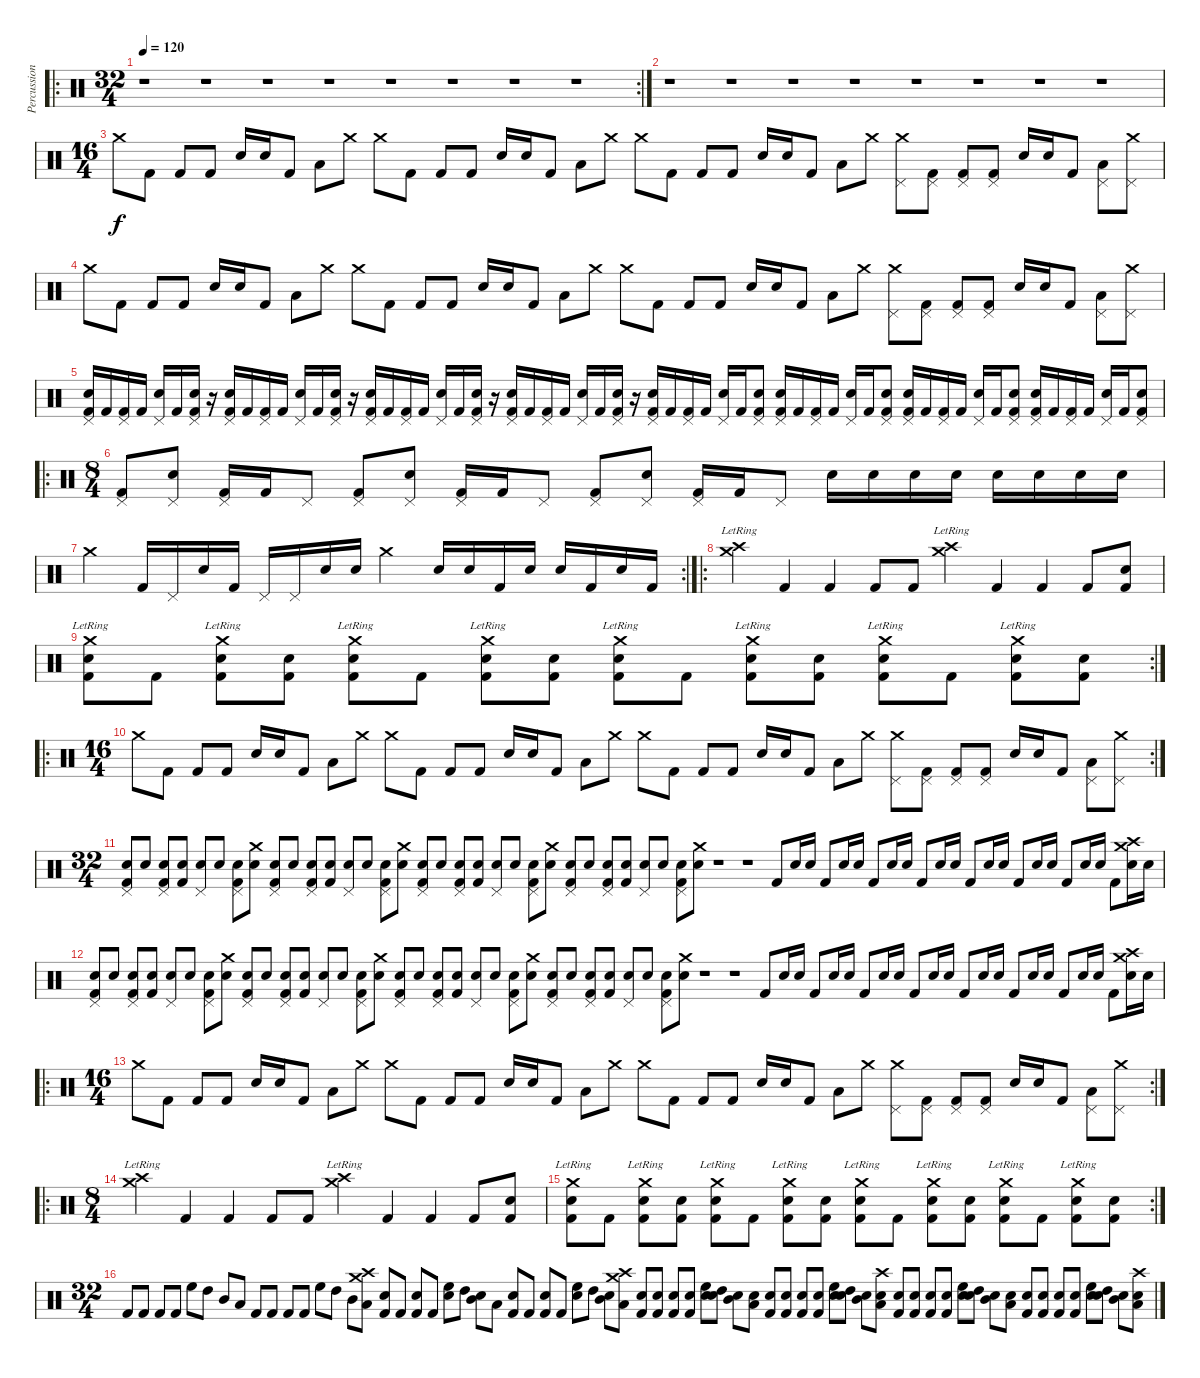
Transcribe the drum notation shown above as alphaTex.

\track ("Percussion" "Percussion") {instrument percussion}
\staff {score}
\articulation defaults
\ro
\rc 2
\ts (32 4)
\tempo 120
\clef neutral
\ks c
r.1{dy f} r.1 r.1 r.1 r.1 r.1 r.1 r.1 |
r.1 r.1 r.1 r.1 r.1 r.1 r.1 r.1 |
\ts (16 4)
"Crash medium (hit)".8 "Kick (hit) 2".8 "Kick (hit) 2".8 "Kick (hit) 2".8 "Snare (hit) 2".16 "Snare (hit) 2".16 "Kick (hit) 2".8 "Low Tom (hit)".8 "Crash medium (hit)".8 "Crash medium (hit)".8 "Kick (hit) 2".8 "Kick (hit) 2".8 "Kick (hit) 2".8 "Snare (hit) 2".16 "Snare (hit) 2".16 "Kick (hit) 2".8 "Low Tom (hit)".8 "Crash medium (hit)".8 "Crash medium (hit)".8 "Kick (hit) 2".8 "Kick (hit) 2".8 "Kick (hit) 2".8 "Snare (hit) 2".16 "Snare (hit) 2".16 "Kick (hit) 2".8 "Low Tom (hit)".8 "Crash medium (hit)".8 ("Crash medium (hit)" "Pedal Hi-Hat (hit)").8 ("Kick (hit) 2" "Pedal Hi-Hat (hit)").8 ("Kick (hit) 2" "Pedal Hi-Hat (hit)").8 ("Kick (hit) 2" "Pedal Hi-Hat (hit)").8 "Snare (hit) 2".16 "Snare (hit) 2".16 "Kick (hit) 2".8 ("Low Tom (hit)" "Pedal Hi-Hat (hit)").8 ("Crash medium (hit)" "Pedal Hi-Hat (hit)").8 |
"Crash medium (hit)".8 "Kick (hit) 2".8 "Kick (hit) 2".8 "Kick (hit) 2".8 "Snare (hit) 2".16 "Snare (hit) 2".16 "Kick (hit) 2".8 "Low Tom (hit)".8 "Crash medium (hit)".8 "Crash medium (hit)".8 "Kick (hit) 2".8 "Kick (hit) 2".8 "Kick (hit) 2".8 "Snare (hit) 2".16 "Snare (hit) 2".16 "Kick (hit) 2".8 "Low Tom (hit)".8 "Crash medium (hit)".8 "Crash medium (hit)".8 "Kick (hit) 2".8 "Kick (hit) 2".8 "Kick (hit) 2".8 "Snare (hit) 2".16 "Snare (hit) 2".16 "Kick (hit) 2".8 "Low Tom (hit)".8 "Crash medium (hit)".8 ("Crash medium (hit)" "Pedal Hi-Hat (hit)").8 ("Kick (hit) 2" "Pedal Hi-Hat (hit)").8 ("Kick (hit) 2" "Pedal Hi-Hat (hit)").8 ("Kick (hit) 2" "Pedal Hi-Hat (hit)").8 "Snare (hit) 2".16 "Snare (hit) 2".16 "Kick (hit) 2".8 ("Low Tom (hit)" "Pedal Hi-Hat (hit)").8 ("Crash medium (hit)" "Pedal Hi-Hat (hit)").8 |
("Pedal Hi-Hat (hit)" "Snare (hit) 2" "Kick (hit) 2").16 "Kick (hit) 2".16 ("Pedal Hi-Hat (hit)" "Kick (hit) 2").16 "Kick (hit) 2".16 ("Pedal Hi-Hat (hit)" "Snare (hit) 2").16 "Kick (hit) 2".16 ("Pedal Hi-Hat (hit)" "Snare (hit) 2" "Kick (hit) 2").16 r.16 ("Pedal Hi-Hat (hit)" "Snare (hit) 2" "Kick (hit) 2").16 "Kick (hit) 2".16 ("Pedal Hi-Hat (hit)" "Kick (hit) 2").16 "Kick (hit) 2".16 ("Pedal Hi-Hat (hit)" "Snare (hit) 2").16 "Kick (hit) 2".16 ("Pedal Hi-Hat (hit)" "Snare (hit) 2" "Kick (hit) 2").16 r.16 ("Pedal Hi-Hat (hit)" "Snare (hit) 2" "Kick (hit) 2").16 "Kick (hit) 2".16 ("Pedal Hi-Hat (hit)" "Kick (hit) 2").16 "Kick (hit) 2".16 ("Pedal Hi-Hat (hit)" "Snare (hit) 2").16 "Kick (hit) 2".16 ("Pedal Hi-Hat (hit)" "Snare (hit) 2" "Kick (hit) 2").16 r.16 ("Pedal Hi-Hat (hit)" "Snare (hit) 2" "Kick (hit) 2").16 "Kick (hit) 2".16 ("Pedal Hi-Hat (hit)" "Kick (hit) 2").16 "Kick (hit) 2".16 ("Pedal Hi-Hat (hit)" "Snare (hit) 2").16 "Kick (hit) 2".16 ("Pedal Hi-Hat (hit)" "Snare (hit) 2" "Kick (hit) 2").16 r.16 ("Pedal Hi-Hat (hit)" "Snare (hit) 2" "Kick (hit) 2").16 "Kick (hit) 2".16 ("Pedal Hi-Hat (hit)" "Kick (hit) 2").16 "Kick (hit) 2".16 ("Pedal Hi-Hat (hit)" "Snare (hit) 2").16 "Kick (hit) 2".16 ("Pedal Hi-Hat (hit)" "Snare (hit) 2" "Kick (hit) 2").8 ("Pedal Hi-Hat (hit)" "Snare (hit) 2" "Kick (hit) 2").16 "Kick (hit) 2".16 ("Pedal Hi-Hat (hit)" "Kick (hit) 2").16 "Kick (hit) 2".16 ("Pedal Hi-Hat (hit)" "Snare (hit) 2").16 "Kick (hit) 2".16 ("Pedal Hi-Hat (hit)" "Snare (hit) 2" "Kick (hit) 2").8 ("Pedal Hi-Hat (hit)" "Snare (hit) 2" "Kick (hit) 2").16 "Kick (hit) 2".16 ("Pedal Hi-Hat (hit)" "Kick (hit) 2").16 "Kick (hit) 2".16 ("Pedal Hi-Hat (hit)" "Snare (hit) 2").16 "Kick (hit) 2".16 ("Pedal Hi-Hat (hit)" "Snare (hit) 2" "Kick (hit) 2").8 ("Pedal Hi-Hat (hit)" "Snare (hit) 2" "Kick (hit) 2").16 "Kick (hit) 2".16 ("Pedal Hi-Hat (hit)" "Kick (hit) 2").16 "Kick (hit) 2".16 ("Pedal Hi-Hat (hit)" "Snare (hit) 2").16 "Kick (hit) 2".16 ("Pedal Hi-Hat (hit)" "Snare (hit) 2" "Kick (hit) 2").8 |
\ro
\ts (8 4)
("Pedal Hi-Hat (hit)" "Kick (hit) 2").8 ("Pedal Hi-Hat (hit)" "Snare (hit) 2").8 ("Pedal Hi-Hat (hit)" "Kick (hit) 2").16 "Kick (hit) 2".16 "Pedal Hi-Hat (hit)".8 ("Pedal Hi-Hat (hit)" "Kick (hit) 2").8 ("Pedal Hi-Hat (hit)" "Snare (hit) 2").8 ("Pedal Hi-Hat (hit)" "Kick (hit) 2").16 "Kick (hit) 2".16 "Pedal Hi-Hat (hit)".8 ("Pedal Hi-Hat (hit)" "Kick (hit) 2").8 ("Pedal Hi-Hat (hit)" "Snare (hit) 2").8 ("Pedal Hi-Hat (hit)" "Kick (hit) 2").16 "Kick (hit) 2".16 "Pedal Hi-Hat (hit)".8 "Snare (hit) 2".16 "Snare (hit) 2".16 "Snare (hit) 2".16 "Snare (hit) 2".16 "Snare (hit) 2".16 "Snare (hit) 2".16 "Snare (hit) 2".16 "Snare (hit) 2".16 |
\rc 2 "Crash medium (hit)".2 "Kick (hit) 2".16 "Pedal Hi-Hat (hit)".16 "Snare (hit) 2".16 "Kick (hit) 2".16 "Pedal Hi-Hat (hit)".16 "Pedal Hi-Hat (hit)".16 "Snare (hit) 2".16 "Snare (hit) 2".16 "Crash medium (hit)".2 "Snare (hit) 2".16 "Snare (hit) 2".16 "Kick (hit) 2".16 "Snare (hit) 2".16 "Snare (hit) 2".16 "Kick (hit) 2".16 "Snare (hit) 2".16 "Kick (hit) 2".16
|
\ro
("Crash medium (hit)"{lr} "Crash high (hit)"{lr}).4 "Kick (hit) 2".4 "Kick (hit) 2".4 "Kick (hit) 2".8 "Kick (hit) 2".8 ("Crash medium (hit)"{lr} "Crash high (hit)"{lr}).4 "Kick (hit) 2".4 "Kick (hit) 2".4 "Kick (hit) 2".8 ("Kick (hit) 2" "Snare (hit) 2").8 |
\rc 2
("Crash medium (hit)"{lr} "Snare (hit) 2" "Kick (hit) 2").8 "Kick (hit) 2".8 ("Crash medium (hit)"{lr} "Snare (hit) 2" "Kick (hit) 2").8 ("Snare (hit) 2" "Kick (hit) 2").8 ("Crash medium (hit)"{lr} "Snare (hit) 2" "Kick (hit) 2").8 "Kick (hit) 2".8 ("Crash medium (hit)"{lr} "Snare (hit) 2" "Kick (hit) 2").8 ("Snare (hit) 2" "Kick (hit) 2").8 ("Crash medium (hit)"{lr} "Snare (hit) 2" "Kick (hit) 2").8 "Kick (hit) 2".8 ("Crash medium (hit)"{lr} "Snare (hit) 2" "Kick (hit) 2").8 ("Snare (hit) 2" "Kick (hit) 2").8 ("Crash medium (hit)"{lr} "Snare (hit) 2" "Kick (hit) 2").8 "Kick (hit) 2".8 ("Crash medium (hit)"{lr} "Snare (hit) 2" "Kick (hit) 2").8 ("Snare (hit) 2" "Kick (hit) 2").8 |
\ro
\rc 2
\ts (16 4)
"Crash medium (hit)".8 "Kick (hit) 2".8 "Kick (hit) 2".8 "Kick (hit) 2".8 "Snare (hit) 2".16 "Snare (hit) 2".16 "Kick (hit) 2".8 "Low Tom (hit)".8 "Crash medium (hit)".8 "Crash medium (hit)".8 "Kick (hit) 2".8 "Kick (hit) 2".8 "Kick (hit) 2".8 "Snare (hit) 2".16 "Snare (hit) 2".16 "Kick (hit) 2".8 "Low Tom (hit)".8 "Crash medium (hit)".8 "Crash medium (hit)".8 "Kick (hit) 2".8 "Kick (hit) 2".8 "Kick (hit) 2".8 "Snare (hit) 2".16 "Snare (hit) 2".16 "Kick (hit) 2".8 "Low Tom (hit)".8 "Crash medium (hit)".8 ("Crash medium (hit)" "Pedal Hi-Hat (hit)").8 ("Kick (hit) 2" "Pedal Hi-Hat (hit)").8 ("Kick (hit) 2" "Pedal Hi-Hat (hit)").8 ("Kick (hit) 2" "Pedal Hi-Hat (hit)").8 "Snare (hit) 2".16 "Snare (hit) 2".16 "Kick (hit) 2".8 ("Low Tom (hit)" "Pedal Hi-Hat (hit)").8 ("Crash medium (hit)" "Pedal Hi-Hat (hit)").8 |
\ts (32 4)
("Snare (hit) 2" "Kick (hit) 2" "Pedal Hi-Hat (hit)").8 "Snare (hit) 2".8 ("Snare (hit) 2" "Kick (hit) 2" "Pedal Hi-Hat (hit)").8 ("Snare (hit) 2" "Kick (hit) 2").8 ("Snare (hit) 2" "Pedal Hi-Hat (hit)").8 "Snare (hit) 2".8 ("Snare (hit) 2" "Kick (hit) 2" "Pedal Hi-Hat (hit)").8 ("Snare (hit) 2" "Crash medium (hit)").8 ("Snare (hit) 2" "Kick (hit) 2" "Pedal Hi-Hat (hit)").8 "Snare (hit) 2".8 ("Snare (hit) 2" "Kick (hit) 2" "Pedal Hi-Hat (hit)").8 ("Snare (hit) 2" "Kick (hit) 2").8 ("Snare (hit) 2" "Pedal Hi-Hat (hit)").8 "Snare (hit) 2".8 ("Snare (hit) 2" "Kick (hit) 2" "Pedal Hi-Hat (hit)").8 ("Snare (hit) 2" "Crash medium (hit)").8 ("Snare (hit) 2" "Kick (hit) 2" "Pedal Hi-Hat (hit)").8 "Snare (hit) 2".8 ("Snare (hit) 2" "Kick (hit) 2" "Pedal Hi-Hat (hit)").8 ("Snare (hit) 2" "Kick (hit) 2").8 ("Snare (hit) 2" "Pedal Hi-Hat (hit)").8 "Snare (hit) 2".8 ("Snare (hit) 2" "Kick (hit) 2" "Pedal Hi-Hat (hit)").8 ("Snare (hit) 2" "Crash medium (hit)").8 ("Snare (hit) 2" "Kick (hit) 2" "Pedal Hi-Hat (hit)").8 "Snare (hit) 2".8 ("Snare (hit) 2" "Kick (hit) 2" "Pedal Hi-Hat (hit)").8 ("Snare (hit) 2" "Kick (hit) 2").8 ("Snare (hit) 2" "Pedal Hi-Hat (hit)").8 "Snare (hit) 2".8 ("Snare (hit) 2" "Kick (hit) 2" "Pedal Hi-Hat (hit)").8 ("Snare (hit) 2" "Crash medium (hit)").8 r.1 r.1 "Kick (hit) 2".8 "Snare (hit) 2".16 "Snare (hit) 2".16 "Kick (hit) 2".8 "Snare (hit) 2".16 "Snare (hit) 2".16 "Kick (hit) 2".8 "Snare (hit) 2".16 "Snare (hit) 2".16 "Kick (hit) 2".8 "Snare (hit) 2".16 "Snare (hit) 2".16 "Kick (hit) 2".8 "Snare (hit) 2".16 "Snare (hit) 2".16 "Kick (hit) 2".8 "Snare (hit) 2".16 "Snare (hit) 2".16 "Kick (hit) 2".8 "Snare (hit) 2".16 "Snare (hit) 2".16 "Kick (hit) 2".8 ("Snare (hit) 2" "Crash medium (hit)" "Crash high (hit)").16 "Snare (hit) 2".16 |
("Snare (hit) 2" "Kick (hit) 2" "Pedal Hi-Hat (hit)").8 "Snare (hit) 2".8 ("Snare (hit) 2" "Kick (hit) 2" "Pedal Hi-Hat (hit)").8 ("Snare (hit) 2" "Kick (hit) 2").8 ("Snare (hit) 2" "Pedal Hi-Hat (hit)").8 "Snare (hit) 2".8 ("Snare (hit) 2" "Kick (hit) 2" "Pedal Hi-Hat (hit)").8 ("Snare (hit) 2" "Crash medium (hit)").8 ("Snare (hit) 2" "Kick (hit) 2" "Pedal Hi-Hat (hit)").8 "Snare (hit) 2".8 ("Snare (hit) 2" "Kick (hit) 2" "Pedal Hi-Hat (hit)").8 ("Snare (hit) 2" "Kick (hit) 2").8 ("Snare (hit) 2" "Pedal Hi-Hat (hit)").8 "Snare (hit) 2".8 ("Snare (hit) 2" "Kick (hit) 2" "Pedal Hi-Hat (hit)").8 ("Snare (hit) 2" "Crash medium (hit)").8 ("Snare (hit) 2" "Kick (hit) 2" "Pedal Hi-Hat (hit)").8 "Snare (hit) 2".8 ("Snare (hit) 2" "Kick (hit) 2" "Pedal Hi-Hat (hit)").8 ("Snare (hit) 2" "Kick (hit) 2").8 ("Snare (hit) 2" "Pedal Hi-Hat (hit)").8 "Snare (hit) 2".8 ("Snare (hit) 2" "Kick (hit) 2" "Pedal Hi-Hat (hit)").8 ("Snare (hit) 2" "Crash medium (hit)").8 ("Snare (hit) 2" "Kick (hit) 2" "Pedal Hi-Hat (hit)").8 "Snare (hit) 2".8 ("Snare (hit) 2" "Kick (hit) 2" "Pedal Hi-Hat (hit)").8 ("Snare (hit) 2" "Kick (hit) 2").8 ("Snare (hit) 2" "Pedal Hi-Hat (hit)").8 "Snare (hit) 2".8 ("Snare (hit) 2" "Kick (hit) 2" "Pedal Hi-Hat (hit)").8 ("Snare (hit) 2" "Crash medium (hit)").8 r.1 r.1 "Kick (hit) 2".8 "Snare (hit) 2".16 "Snare (hit) 2".16 "Kick (hit) 2".8 "Snare (hit) 2".16 "Snare (hit) 2".16 "Kick (hit) 2".8 "Snare (hit) 2".16 "Snare (hit) 2".16 "Kick (hit) 2".8 "Snare (hit) 2".16 "Snare (hit) 2".16 "Kick (hit) 2".8 "Snare (hit) 2".16 "Snare (hit) 2".16 "Kick (hit) 2".8 "Snare (hit) 2".16 "Snare (hit) 2".16 "Kick (hit) 2".8 "Snare (hit) 2".16 "Snare (hit) 2".16 "Kick (hit) 2".8 ("Snare (hit) 2" "Crash medium (hit)" "Crash high (hit)").16 "Snare (hit) 2".16 |
\ro
\rc 2
\ts (16 4)
"Crash medium (hit)".8 "Kick (hit) 2".8 "Kick (hit) 2".8 "Kick (hit) 2".8 "Snare (hit) 2".16 "Snare (hit) 2".16 "Kick (hit) 2".8 "Low Tom (hit)".8 "Crash medium (hit)".8 "Crash medium (hit)".8 "Kick (hit) 2".8 "Kick (hit) 2".8 "Kick (hit) 2".8 "Snare (hit) 2".16 "Snare (hit) 2".16 "Kick (hit) 2".8 "Low Tom (hit)".8 "Crash medium (hit)".8 "Crash medium (hit)".8 "Kick (hit) 2".8 "Kick (hit) 2".8 "Kick (hit) 2".8 "Snare (hit) 2".16 "Snare (hit) 2".16 "Kick (hit) 2".8 "Low Tom (hit)".8 "Crash medium (hit)".8 ("Crash medium (hit)" "Pedal Hi-Hat (hit)").8 ("Kick (hit) 2" "Pedal Hi-Hat (hit)").8 ("Kick (hit) 2" "Pedal Hi-Hat (hit)").8 ("Kick (hit) 2" "Pedal Hi-Hat (hit)").8 "Snare (hit) 2".16 "Snare (hit) 2".16 "Kick (hit) 2".8 ("Low Tom (hit)" "Pedal Hi-Hat (hit)").8 ("Crash medium (hit)" "Pedal Hi-Hat (hit)").8 |
\ro
\ts (8 4)
("Crash medium (hit)"{lr} "Crash high (hit)"{lr}).4 "Kick (hit) 2".4 "Kick (hit) 2".4 "Kick (hit) 2".8 "Kick (hit) 2".8 ("Crash medium (hit)"{lr} "Crash high (hit)"{lr}).4 "Kick (hit) 2".4 "Kick (hit) 2".4 "Kick (hit) 2".8 ("Kick (hit) 2" "Snare (hit) 2").8 |
\rc 2
("Crash medium (hit)"{lr} "Snare (hit) 2" "Kick (hit) 2").8 "Kick (hit) 2".8 ("Crash medium (hit)"{lr} "Snare (hit) 2" "Kick (hit) 2").8 ("Snare (hit) 2" "Kick (hit) 2").8 ("Crash medium (hit)"{lr} "Snare (hit) 2" "Kick (hit) 2").8 "Kick (hit) 2".8 ("Crash medium (hit)"{lr} "Snare (hit) 2" "Kick (hit) 2").8 ("Snare (hit) 2" "Kick (hit) 2").8 ("Crash medium (hit)"{lr} "Snare (hit) 2" "Kick (hit) 2").8 "Kick (hit) 2".8 ("Crash medium (hit)"{lr} "Snare (hit) 2" "Kick (hit) 2").8 ("Snare (hit) 2" "Kick (hit) 2").8 ("Crash medium (hit)"{lr} "Snare (hit) 2" "Kick (hit) 2").8 "Kick (hit) 2".8 ("Crash medium (hit)"{lr} "Snare (hit) 2" "Kick (hit) 2").8 ("Snare (hit) 2" "Kick (hit) 2").8 |
\ts (32 4)
"Kick (hit) 2".8 "Kick (hit) 2".8 "Kick (hit) 2".8 "Kick (hit) 2".8 "High Floor Tom (hit)".8 "High Tom (hit)".8 "Mid Tom (hit)".8 "Low Tom (hit)".8 "Kick (hit) 2".8 "Kick (hit) 2".8 "Kick (hit) 2".8 "Kick (hit) 2".8 "High Floor Tom (hit)".8 "High Tom (hit)".8 "Mid Tom (hit)".8 ("Low Tom (hit)" "Crash medium (hit)" "Crash high (hit)").8 ("Kick (hit) 2" "Snare (hit) 2").8 "Kick (hit) 2".8 ("Kick (hit) 2" "Snare (hit) 2").8 "Kick (hit) 2".8 ("High Floor Tom (hit)" "Snare (hit) 2").8 "High Tom (hit)".8 ("Mid Tom (hit)" "Snare (hit) 2").8 "Low Tom (hit)".8 ("Kick (hit) 2" "Snare (hit) 2").8 "Kick (hit) 2".8 ("Kick (hit) 2" "Snare (hit) 2").8 "Kick (hit) 2".8 ("High Floor Tom (hit)" "Snare (hit) 2").8 "High Tom (hit)".8 ("Mid Tom (hit)" "Snare (hit) 2").8 ("Low Tom (hit)" "Crash medium (hit)" "Crash high (hit)").8 ("Kick (hit) 2" "Snare (hit) 2").8 ("Kick (hit) 2" "Snare (hit) 2").8 ("Kick (hit) 2" "Snare (hit) 2").8 ("Kick (hit) 2" "Snare (hit) 2").8 ("High Floor Tom (hit)" "Snare (hit) 2").8 ("High Tom (hit)" "Snare (hit) 2").8 ("Mid Tom (hit)" "Snare (hit) 2").8 ("Low Tom (hit)" "Snare (hit) 2").8 ("Kick (hit) 2" "Snare (hit) 2").8 ("Kick (hit) 2" "Snare (hit) 2").8 ("Kick (hit) 2" "Snare (hit) 2").8 ("Kick (hit) 2" "Snare (hit) 2").8 ("High Floor Tom (hit)" "Snare (hit) 2").8 ("High Tom (hit)" "Snare (hit) 2").8 ("Mid Tom (hit)" "Snare (hit) 2").8 ("Low Tom (hit)" "Snare (hit) 2" "Crash high (hit)").8 ("Kick (hit) 2" "Snare (hit) 2").8 ("Kick (hit) 2" "Snare (hit) 2").8 ("Kick (hit) 2" "Snare (hit) 2").8 ("Kick (hit) 2" "Snare (hit) 2").8 ("High Floor Tom (hit)" "Snare (hit) 2").8 ("High Tom (hit)" "Snare (hit) 2").8 ("Mid Tom (hit)" "Snare (hit) 2").8 ("Low Tom (hit)" "Snare (hit) 2").8 ("Kick (hit) 2" "Snare (hit) 2").8 ("Kick (hit) 2" "Snare (hit) 2").8 ("Kick (hit) 2" "Snare (hit) 2").8 ("Kick (hit) 2" "Snare (hit) 2").8 ("High Floor Tom (hit)" "Snare (hit) 2").8 ("High Tom (hit)" "Snare (hit) 2").8 ("Mid Tom (hit)" "Snare (hit) 2").8 ("Low Tom (hit)" "Snare (hit) 2" "Crash high (hit)").8
